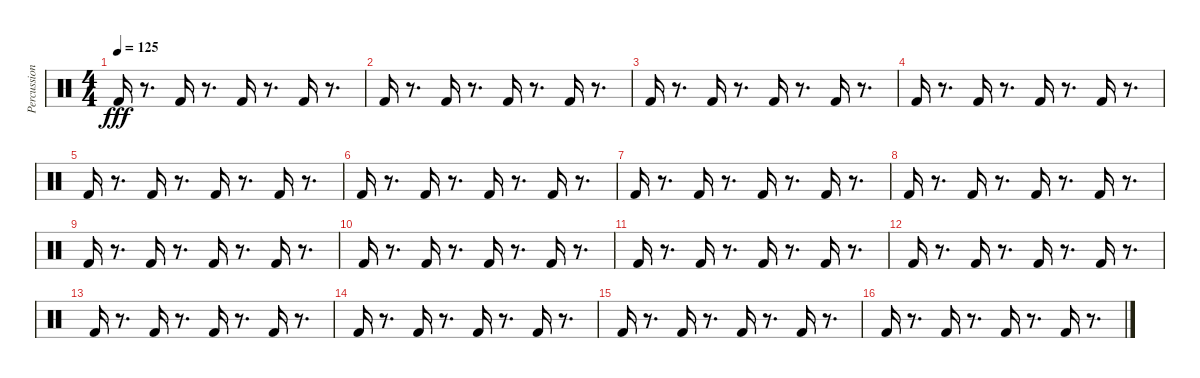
\track ("Percussion" "Percussion") {instrument percussion}
\staff {score}
\articulation defaults
\ts (4 4)
\tempo 125
\clef neutral
\ks c "Kick (hit) 2".16{dy fff}
r.8{d} "Kick (hit) 2".16 r.8{d} "Kick (hit) 2".16 r.8{d} "Kick (hit) 2".16 r.8{d} |
"Kick (hit) 2".16 r.8{d} "Kick (hit) 2".16 r.8{d} "Kick (hit) 2".16 r.8{d} "Kick (hit) 2".16 r.8{d} |
"Kick (hit) 2".16 r.8{d} "Kick (hit) 2".16 r.8{d} "Kick (hit) 2".16 r.8{d} "Kick (hit) 2".16 r.8{d} |
"Kick (hit) 2".16 r.8{d} "Kick (hit) 2".16 r.8{d} "Kick (hit) 2".16 r.8{d} "Kick (hit) 2".16 r.8{d} |
"Kick (hit) 2".16 r.8{d} "Kick (hit) 2".16 r.8{d} "Kick (hit) 2".16 r.8{d} "Kick (hit) 2".16 r.8{d} |
"Kick (hit) 2".16 r.8{d} "Kick (hit) 2".16 r.8{d} "Kick (hit) 2".16 r.8{d} "Kick (hit) 2".16 r.8{d} |
"Kick (hit) 2".16 r.8{d} "Kick (hit) 2".16 r.8{d} "Kick (hit) 2".16 r.8{d} "Kick (hit) 2".16 r.8{d} |
"Kick (hit) 2".16 r.8{d} "Kick (hit) 2".16 r.8{d} "Kick (hit) 2".16 r.8{d} "Kick (hit) 2".16 r.8{d} |
"Kick (hit) 2".16 r.8{d} "Kick (hit) 2".16 r.8{d} "Kick (hit) 2".16 r.8{d} "Kick (hit) 2".16 r.8{d} |
"Kick (hit) 2".16 r.8{d} "Kick (hit) 2".16 r.8{d} "Kick (hit) 2".16 r.8{d} "Kick (hit) 2".16 r.8{d} |
"Kick (hit) 2".16 r.8{d} "Kick (hit) 2".16 r.8{d} "Kick (hit) 2".16 r.8{d} "Kick (hit) 2".16 r.8{d} |
"Kick (hit) 2".16 r.8{d} "Kick (hit) 2".16 r.8{d} "Kick (hit) 2".16 r.8{d} "Kick (hit) 2".16 r.8{d} |
"Kick (hit) 2".16 r.8{d} "Kick (hit) 2".16 r.8{d} "Kick (hit) 2".16 r.8{d} "Kick (hit) 2".16 r.8{d} |
"Kick (hit) 2".16 r.8{d} "Kick (hit) 2".16 r.8{d} "Kick (hit) 2".16 r.8{d} "Kick (hit) 2".16 r.8{d} |
"Kick (hit) 2".16 r.8{d} "Kick (hit) 2".16 r.8{d} "Kick (hit) 2".16 r.8{d} "Kick (hit) 2".16 r.8{d} |
"Kick (hit) 2".16 r.8{d} "Kick (hit) 2".16 r.8{d} "Kick (hit) 2".16 r.8{d} "Kick (hit) 2".16 r.8{d}
